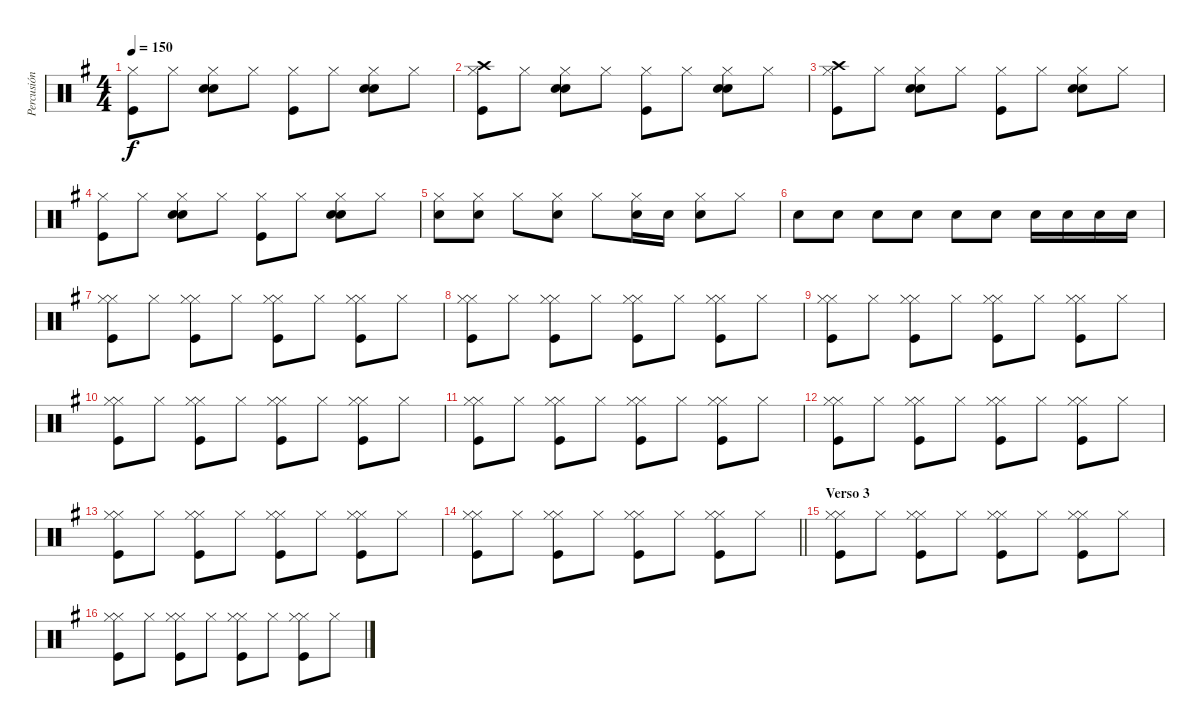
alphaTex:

\track ("Percusión" "Percusión") {instrument percussion}
\staff {score}
\articulation defaults
\ts (4 4)
\tempo 150
\clef neutral
\ks g
("Hi-Hat (closed)" "Kick (hit)").8{dy f} "Hi-Hat (closed)".8 ("Hi-Hat (closed)" "Snare (hit) 2" "Hand Clap (hit)").8 "Hi-Hat (closed)".8 ("Hi-Hat (closed)" "Kick (hit)").8 "Hi-Hat (closed)".8 ("Hi-Hat (closed)" "Snare (hit) 2" "Hand Clap (hit)").8 "Hi-Hat (closed)".8 |
("Hi-Hat (closed)" "Kick (hit)" "Crash high (hit)").8 "Hi-Hat (closed)".8 ("Hi-Hat (closed)" "Snare (hit) 2" "Hand Clap (hit)").8 "Hi-Hat (closed)".8 ("Hi-Hat (closed)" "Kick (hit)").8 "Hi-Hat (closed)".8 ("Hi-Hat (closed)" "Snare (hit) 2" "Hand Clap (hit)").8 "Hi-Hat (closed)".8 |
("Hi-Hat (closed)" "Kick (hit)" "Crash high (hit)").8 "Hi-Hat (closed)".8 ("Hi-Hat (closed)" "Snare (hit) 2" "Hand Clap (hit)").8 "Hi-Hat (closed)".8 ("Hi-Hat (closed)" "Kick (hit)").8 "Hi-Hat (closed)".8 ("Hi-Hat (closed)" "Snare (hit) 2" "Hand Clap (hit)").8 "Hi-Hat (closed)".8 |
("Hi-Hat (closed)" "Kick (hit)").8 "Hi-Hat (closed)".8 ("Hi-Hat (closed)" "Snare (hit) 2" "Hand Clap (hit)").8 "Hi-Hat (closed)".8 ("Hi-Hat (closed)" "Kick (hit)").8 "Hi-Hat (closed)".8 ("Hi-Hat (closed)" "Snare (hit) 2" "Hand Clap (hit)").8 "Hi-Hat (closed)".8 |
("Hi-Hat (closed)" "Snare (hit) 2").8 ("Hi-Hat (closed)" "Snare (hit) 2").8 "Hi-Hat (closed)".8 ("Hi-Hat (closed)" "Snare (hit) 2").8 "Hi-Hat (closed)".8 ("Hi-Hat (closed)" "Snare (hit) 2").16 "Snare (hit) 2".16 ("Hi-Hat (closed)" "Snare (hit) 2").8 "Hi-Hat (closed)".8 |
"Snare (hit) 2".8 "Snare (hit) 2".8 "Snare (hit) 2".8 "Snare (hit) 2".8 "Snare (hit) 2".8 "Snare (hit) 2".8 "Snare (hit) 2".16 "Snare (hit) 2".16 "Snare (hit) 2".16 "Snare (hit) 2".16 |
("Hi-Hat (closed)" "Kick (hit)" "Hi-Hat (closed)").8 "Hi-Hat (closed)".8 ("Hi-Hat (closed)" "Kick (hit)" "Hi-Hat (closed)").8 "Hi-Hat (closed)".8 ("Hi-Hat (closed)" "Kick (hit)" "Hi-Hat (closed)").8 "Hi-Hat (closed)".8 ("Hi-Hat (closed)" "Kick (hit)" "Hi-Hat (closed)").8 "Hi-Hat (closed)".8 |
("Hi-Hat (closed)" "Kick (hit)" "Hi-Hat (closed)").8 "Hi-Hat (closed)".8 ("Hi-Hat (closed)" "Kick (hit)" "Hi-Hat (closed)").8 "Hi-Hat (closed)".8 ("Hi-Hat (closed)" "Kick (hit)" "Hi-Hat (closed)").8 "Hi-Hat (closed)".8 ("Hi-Hat (closed)" "Kick (hit)" "Hi-Hat (closed)").8 "Hi-Hat (closed)".8 |
("Hi-Hat (closed)" "Kick (hit)" "Hi-Hat (closed)").8 "Hi-Hat (closed)".8 ("Hi-Hat (closed)" "Kick (hit)" "Hi-Hat (closed)").8 "Hi-Hat (closed)".8 ("Hi-Hat (closed)" "Kick (hit)" "Hi-Hat (closed)").8 "Hi-Hat (closed)".8 ("Hi-Hat (closed)" "Kick (hit)" "Hi-Hat (closed)").8 "Hi-Hat (closed)".8 |
("Hi-Hat (closed)" "Kick (hit)" "Hi-Hat (closed)").8 "Hi-Hat (closed)".8 ("Hi-Hat (closed)" "Kick (hit)" "Hi-Hat (closed)").8 "Hi-Hat (closed)".8 ("Hi-Hat (closed)" "Kick (hit)" "Hi-Hat (closed)").8 "Hi-Hat (closed)".8 ("Hi-Hat (closed)" "Kick (hit)" "Hi-Hat (closed)").8 "Hi-Hat (closed)".8 |
("Hi-Hat (closed)" "Kick (hit)" "Hi-Hat (closed)").8 "Hi-Hat (closed)".8 ("Hi-Hat (closed)" "Kick (hit)" "Hi-Hat (closed)").8 "Hi-Hat (closed)".8 ("Hi-Hat (closed)" "Kick (hit)" "Hi-Hat (closed)").8 "Hi-Hat (closed)".8 ("Hi-Hat (closed)" "Kick (hit)" "Hi-Hat (closed)").8 "Hi-Hat (closed)".8 |
("Hi-Hat (closed)" "Kick (hit)" "Hi-Hat (closed)").8 "Hi-Hat (closed)".8 ("Hi-Hat (closed)" "Kick (hit)" "Hi-Hat (closed)").8 "Hi-Hat (closed)".8 ("Hi-Hat (closed)" "Kick (hit)" "Hi-Hat (closed)").8 "Hi-Hat (closed)".8 ("Hi-Hat (closed)" "Kick (hit)" "Hi-Hat (closed)").8 "Hi-Hat (closed)".8 |
("Hi-Hat (closed)" "Kick (hit)" "Hi-Hat (closed)").8 "Hi-Hat (closed)".8 ("Hi-Hat (closed)" "Kick (hit)" "Hi-Hat (closed)").8 "Hi-Hat (closed)".8 ("Hi-Hat (closed)" "Kick (hit)" "Hi-Hat (closed)").8 "Hi-Hat (closed)".8 ("Hi-Hat (closed)" "Kick (hit)" "Hi-Hat (closed)").8 "Hi-Hat (closed)".8 |
\barLineRight lightlight
("Hi-Hat (closed)" "Kick (hit)" "Hi-Hat (closed)").8 "Hi-Hat (closed)".8 ("Hi-Hat (closed)" "Kick (hit)" "Hi-Hat (closed)").8 "Hi-Hat (closed)".8 ("Hi-Hat (closed)" "Kick (hit)" "Hi-Hat (closed)").8 "Hi-Hat (closed)".8 ("Hi-Hat (closed)" "Kick (hit)" "Hi-Hat (closed)").8 "Hi-Hat (closed)".8 |
\section ("" "Verso 3")
("Hi-Hat (closed)" "Kick (hit)" "Hi-Hat (closed)").8 "Hi-Hat (closed)".8 ("Hi-Hat (closed)" "Kick (hit)" "Hi-Hat (closed)").8 "Hi-Hat (closed)".8 ("Hi-Hat (closed)" "Kick (hit)" "Hi-Hat (closed)").8 "Hi-Hat (closed)".8 ("Hi-Hat (closed)" "Kick (hit)" "Hi-Hat (closed)").8 "Hi-Hat (closed)".8 |
("Hi-Hat (closed)" "Kick (hit)" "Hi-Hat (closed)").8 "Hi-Hat (closed)".8 ("Hi-Hat (closed)" "Kick (hit)" "Hi-Hat (closed)").8 "Hi-Hat (closed)".8 ("Hi-Hat (closed)" "Kick (hit)" "Hi-Hat (closed)").8 "Hi-Hat (closed)".8 ("Hi-Hat (closed)" "Kick (hit)" "Hi-Hat (closed)").8 "Hi-Hat (closed)".8
